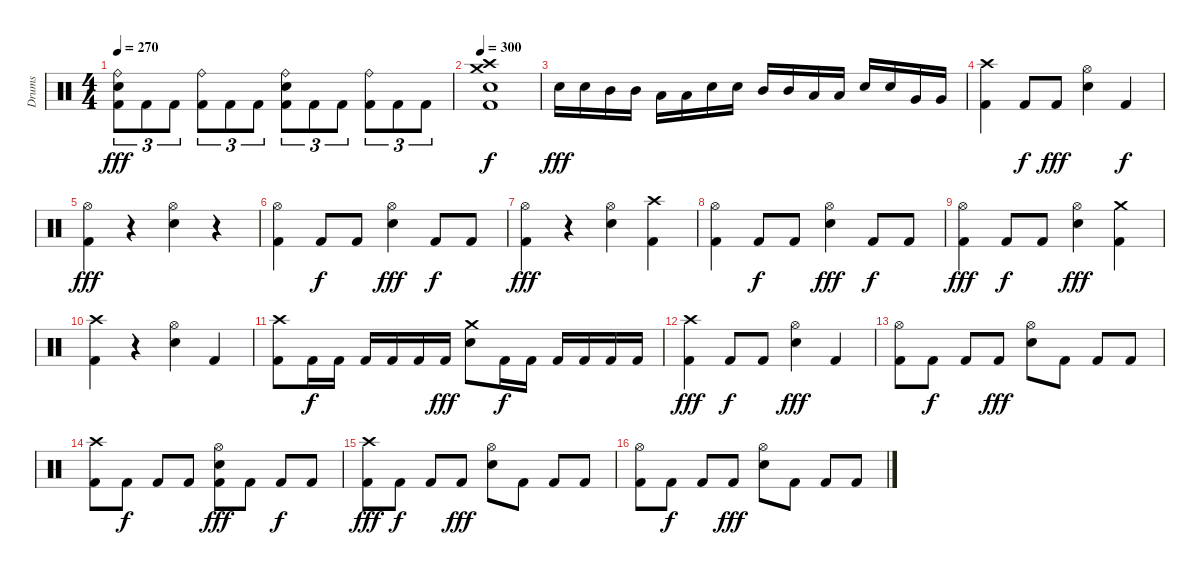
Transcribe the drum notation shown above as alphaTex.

\track ("Drums" "Drums") {instrument percussion}
\staff {score}
\articulation defaults
\ts (4 4)
\tempo 270
\clef neutral
\ks c
("Kick (hit) 2" "Snare (hit) 2" "Ride (bell)").8{tu (3 2) dy fff} "Kick (hit) 2".8{tu (3 2)} "Kick (hit) 2".8{tu (3 2)} ("Kick (hit) 2" "Ride (bell)").8{tu (3 2)} "Kick (hit) 2".8{tu (3 2)} "Kick (hit) 2".8{tu (3 2)} ("Kick (hit) 2" "Snare (hit) 2" "Ride (bell)").8{tu (3 2)} "Kick (hit) 2".8{tu (3 2)} "Kick (hit) 2".8{tu (3 2)} ("Kick (hit) 2" "Ride (bell)").8{tu (3 2)} "Kick (hit) 2".8{tu (3 2)} "Kick (hit) 2".8{tu (3 2)} |
\tempo 300
("Kick (hit) 2" "Snare (hit) 2" "Crash high (hit)" "Crash medium (hit)").1{dy f} |
"Snare (hit) 2".16{dy fff} "Snare (hit) 2".16 "Mid Tom (hit)".16 "Mid Tom (hit)".16 "Low Tom (hit)".16 "Low Tom (hit)".16 "Snare (hit) 2".16 "Snare (hit) 2".16 "Mid Tom (hit)".16 "Mid Tom (hit)".16 "Low Tom (hit)".16 "Low Tom (hit)".16 "Snare (hit) 2".16 "Snare (hit) 2".16 "Very Low Tom (hit)".16 "Very Low Tom (hit)".16 |
("Kick (hit) 2" "Crash high (hit)").4 "Kick (hit) 2".8{dy f} "Kick (hit) 2".8{dy fff} ("Snare (hit) 2" "Hi-Hat (open)").4 "Kick (hit) 2".4{dy f} |
("Kick (hit) 2" "Hi-Hat (open)").4{dy fff} r.4 ("Snare (hit) 2" "Hi-Hat (open)").4 r.4 |
("Kick (hit) 2" "Hi-Hat (open)").4 "Kick (hit) 2".8{dy f} "Kick (hit) 2".8 ("Snare (hit) 2" "Hi-Hat (open)").4{dy fff} "Kick (hit) 2".8{dy f} "Kick (hit) 2".8 |
("Kick (hit) 2" "Hi-Hat (open)").4{dy fff} r.4 ("Snare (hit) 2" "Hi-Hat (open)").4 ("Kick (hit) 2" "Crash high (hit)").4 |
("Kick (hit) 2" "Hi-Hat (open)").4 "Kick (hit) 2".8{dy f} "Kick (hit) 2".8 ("Snare (hit) 2" "Hi-Hat (open)").4{dy fff} "Kick (hit) 2".8{dy f} "Kick (hit) 2".8 |
("Kick (hit) 2" "Hi-Hat (open)").4{dy fff} "Kick (hit) 2".8{dy f} "Kick (hit) 2".8 ("Snare (hit) 2" "Hi-Hat (open)").4{dy fff} ("Kick (hit) 2" "Crash medium (hit)").4 |
("Kick (hit) 2" "Crash high (hit)").4 r.4 ("Snare (hit) 2" "Hi-Hat (open)").4 "Kick (hit) 2".4 |
("Kick (hit) 2" "Crash high (hit)").8 "Kick (hit) 2".16{dy f} "Kick (hit) 2".16 "Kick (hit) 2".16 "Kick (hit) 2".16 "Kick (hit) 2".16 "Kick (hit) 2".16{dy fff} ("Snare (hit) 2" "Crash medium (hit)").8 "Kick (hit) 2".16{dy f} "Kick (hit) 2".16 "Kick (hit) 2".16 "Kick (hit) 2".16 "Kick (hit) 2".16 "Kick (hit) 2".16 |
("Kick (hit) 2" "Crash high (hit)").4{dy fff} "Kick (hit) 2".8{dy f} "Kick (hit) 2".8 ("Snare (hit) 2" "Hi-Hat (open)").4{dy fff} "Kick (hit) 2".4 |
("Kick (hit) 2" "Hi-Hat (open)").8 "Kick (hit) 2".8{dy f} "Kick (hit) 2".8 "Kick (hit) 2".8{dy fff} ("Snare (hit) 2" "Hi-Hat (open)").8 "Kick (hit) 2".8 "Kick (hit) 2".8 "Kick (hit) 2".8 |
("Kick (hit) 2" "Crash high (hit)").8 "Kick (hit) 2".8{dy f} "Kick (hit) 2".8 "Kick (hit) 2".8 ("Snare (hit) 2" "Hi-Hat (open)" "Kick (hit) 2").8{dy fff} "Kick (hit) 2".8 "Kick (hit) 2".8{dy f} "Kick (hit) 2".8 |
("Kick (hit) 2" "Crash high (hit)").8{dy fff} "Kick (hit) 2".8{dy f} "Kick (hit) 2".8 "Kick (hit) 2".8{dy fff} ("Snare (hit) 2" "Hi-Hat (open)").8 "Kick (hit) 2".8 "Kick (hit) 2".8 "Kick (hit) 2".8 |
("Kick (hit) 2" "Hi-Hat (open)").8 "Kick (hit) 2".8{dy f} "Kick (hit) 2".8 "Kick (hit) 2".8{dy fff} ("Snare (hit) 2" "Hi-Hat (open)").8 "Kick (hit) 2".8 "Kick (hit) 2".8 "Kick (hit) 2".8
